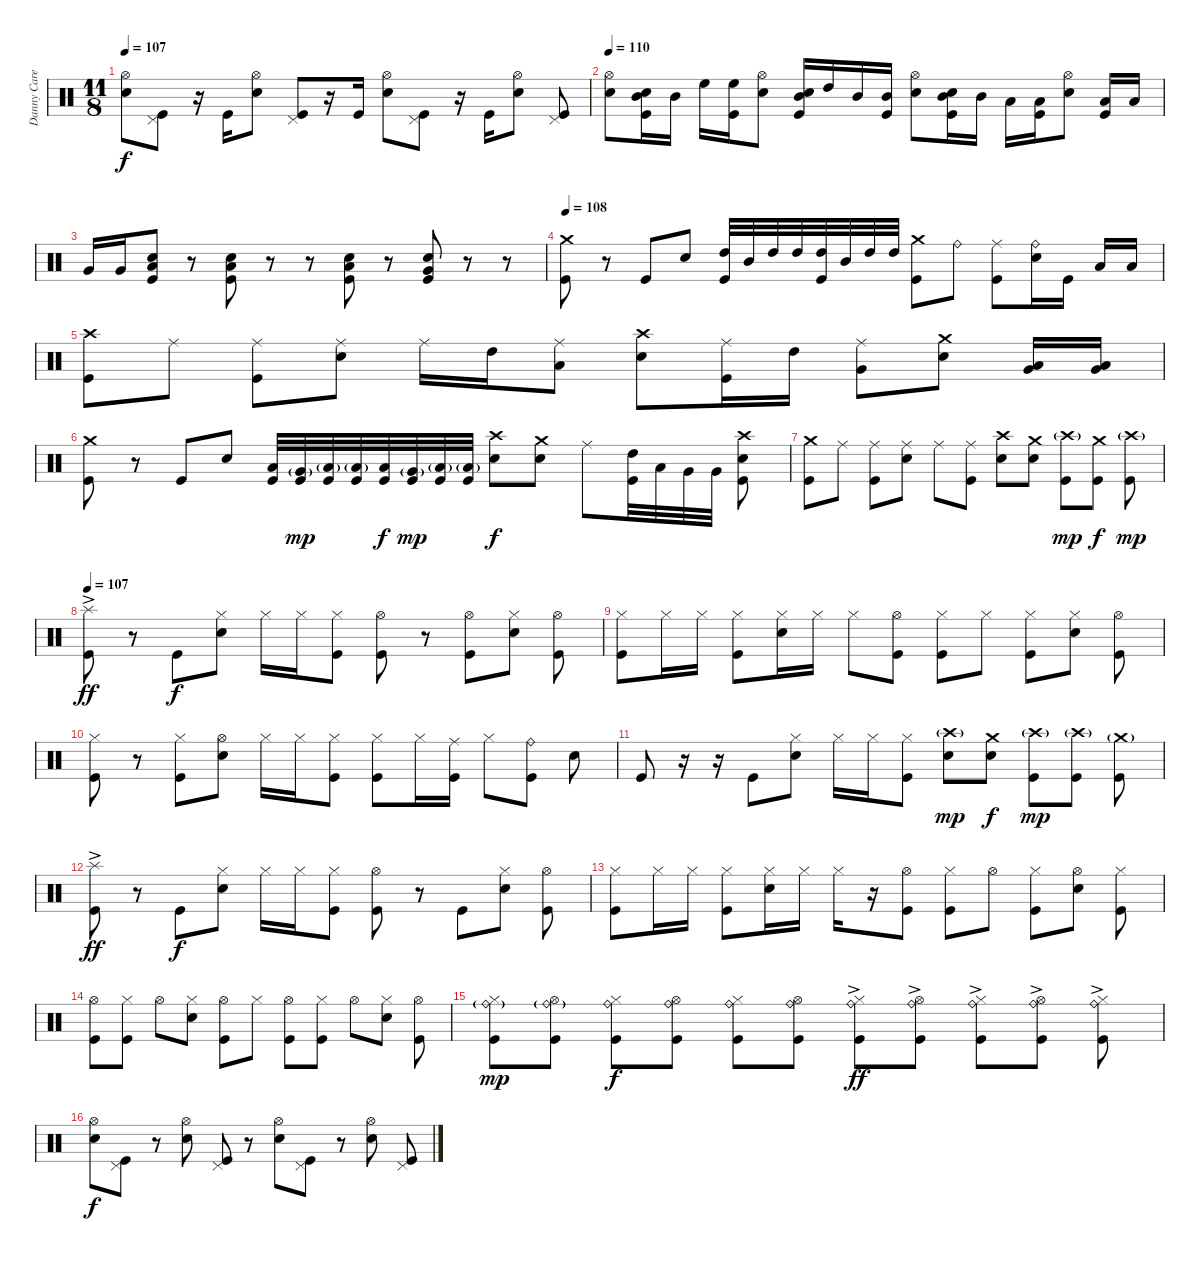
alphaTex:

\track ("Danny Carey (drum)" "Danny Care") {instrument percussion}
\staff {score}
\articulation defaults
\ts (11 8)
\tempo 107
\clef neutral
\ks c
("Hi-Hat (open)" "Snare (hit) 2").8{dy f} ("Pedal Hi-Hat (hit)" "Kick (hit)").8 r.16 "Kick (hit)".16 ("Hi-Hat (open)" "Snare (hit) 2").8 ("Pedal Hi-Hat (hit)" "Kick (hit)").8 r.16 "Kick (hit)".16 ("Hi-Hat (open)" "Snare (hit) 2").8 ("Pedal Hi-Hat (hit)" "Kick (hit)").8 r.16 "Kick (hit)".16 ("Hi-Hat (open)" "Snare (hit) 2").8 ("Pedal Hi-Hat (hit)" "Kick (hit)").8 |
\tempo 110
("Hi-Hat (open)" "Snare (hit) 2").8 ("Mid Tom (hit)" "Snare (hit) 2" "Kick (hit)").16 "Mid Tom (hit)".16 "High Floor Tom (hit)".16 ("High Floor Tom (hit)" "Kick (hit)").16 ("Hi-Hat (open)" "Snare (hit) 2").8 ("Mid Tom (hit)" "Snare (hit) 2" "Kick (hit)").16 "High Tom (hit)".16 "Mid Tom (hit)".16 ("Mid Tom (hit)" "Kick (hit)").16 ("Hi-Hat (open)" "Snare (hit) 2").8 ("Mid Tom (hit)" "Snare (hit) 2" "Kick (hit)").16 "Mid Tom (hit)".16 "Low Tom (hit)".16 ("Low Tom (hit)" "Kick (hit)").16 ("Hi-Hat (open)" "Snare (hit) 2").8 ("Low Tom (hit)" "Kick (hit)").16 "Low Tom (hit)".16 |
"Very Low Tom (hit)".16 "Very Low Tom (hit)".16 ("Snare (hit) 2" "Low Floor Tom (hit)" "Kick (hit)").8 r.8 ("Snare (hit) 2" "Low Floor Tom (hit)" "Kick (hit)").8 r.8 r.8 ("Snare (hit) 2" "Low Floor Tom (hit)" "Kick (hit)").8 r.8 ("Snare (hit) 2" "Very Low Tom (hit)" "Kick (hit)").8 r.8 r.8 |
\tempo 108
("Crash medium (hit)" "Kick (hit)").8 r.8 "Kick (hit)".8 "Snare (hit) 2".8 ("High Tom (hit)" "Kick (hit)").32 "Mid Tom (hit)".32 "High Tom (hit)".32 "High Tom (hit)".32 ("High Tom (hit)" "Kick (hit)").32 "Mid Tom (hit)".32 "High Tom (hit)".32 "High Tom (hit)".32 ("Crash medium (hit)" "Kick (hit)").8 "Ride (bell)".8 ("Ride (middle)" "Kick (hit)").8 ("Ride (bell)" "Snare (hit) 2").16 "Kick (hit)".16 "Low Tom (hit)".16 "Low Tom (hit)".16 |
("Crash high (hit)" "Kick (hit)").8 "Ride (middle)".8 ("Ride (middle)" "Kick (hit)").8 ("Ride (middle)" "Snare (hit) 2").8 "Ride (middle)".16 "High Tom (hit)".16 ("Ride (middle)" "Low Tom (hit)").8 ("Crash high (hit)" "Snare (hit) 2").8 ("Ride (middle)" "Kick (hit)").16 "High Tom (hit)".16 ("Ride (middle)" "Very Low Tom (hit)").8 ("Crash medium (hit)" "Snare (hit) 2").8 ("Very Low Tom (hit)" "Low Floor Tom (hit)").16 ("Very Low Tom (hit)" "Low Floor Tom (hit)").16 |
("Crash medium (hit)" "Kick (hit)").8 r.8 "Kick (hit)".8 "Snare (hit) 2".8 ("Low Tom (hit)" "Kick (hit)").32 ("Very Low Tom (hit)"{g} "Kick (hit)").32{dy mp} ("Low Floor Tom (hit)"{g} "Kick (hit)").32 ("Low Floor Tom (hit)"{g} "Kick (hit)").32 ("Low Tom (hit)" "Kick (hit)").32{dy f} ("Very Low Tom (hit)"{g} "Kick (hit)").32{dy mp} ("Low Floor Tom (hit)"{g} "Kick (hit)").32 ("Low Floor Tom (hit)"{g} "Kick (hit)").32 ("Crash high (hit)" "Snare (hit) 2").8{dy f} ("Crash medium (hit)" "Snare (hit) 2").8 "Ride (middle)".8 ("High Tom (hit)" "Kick (hit)").32 "Low Tom (hit)".32 "Very Low Tom (hit)".32 "Very Low Tom (hit)".32 ("Crash high (hit)" "Snare (hit) 2" "Kick (hit)").8 |
("Crash medium (hit)" "Kick (hit)").8 "Ride (middle)".8 ("Ride (middle)" "Kick (hit)").8 ("Ride (middle)" "Snare (hit) 2").8 "Ride (middle)".8 ("Ride (middle)" "Kick (hit)").8 ("Crash high (hit)" "Snare (hit) 2").8 ("Crash medium (hit)" "Snare (hit) 2").8 ("Crash high (hit)"{g} "Kick (hit)").8{dy mp} ("Crash medium (hit)" "Kick (hit)").8{dy f} ("Crash high (hit)"{g} "Kick (hit)").8{dy mp} |
\tempo 107
("Splash (hit)"{ac} "Kick (hit)").8{dy ff} r.8 "Kick (hit)".8{dy f} ("Hi-Hat (closed)" "Snare (hit) 2").8 "Hi-Hat (closed)".16 "Hi-Hat (closed)".16 ("Hi-Hat (closed)" "Kick (hit)").8 ("Hi-Hat (open)" "Kick (hit)").8 r.8 ("Hi-Hat (open)" "Kick (hit)").8 ("Hi-Hat (closed)" "Snare (hit) 2").8 ("Hi-Hat (open)" "Kick (hit)").8 |
("Hi-Hat (closed)" "Kick (hit)").8 "Hi-Hat (closed)".16 "Hi-Hat (closed)".16 ("Hi-Hat (closed)" "Kick (hit)").8 ("Hi-Hat (closed)" "Snare (hit) 2").16 "Hi-Hat (closed)".16 "Hi-Hat (closed)".8 ("Hi-Hat (open)" "Kick (hit)").8 ("Hi-Hat (closed)" "Kick (hit)").8 "Hi-Hat (closed)".8 ("Hi-Hat (closed)" "Kick (hit)").8 ("Hi-Hat (closed)" "Snare (hit) 2").8 ("Hi-Hat (open)" "Kick (hit)").8 |
("Hi-Hat (closed)" "Kick (hit)").8 r.8 ("Hi-Hat (closed)" "Kick (hit)").8 ("Hi-Hat (open)" "Snare (hit) 2").8 "Hi-Hat (closed)".16 "Hi-Hat (closed)".16 ("Hi-Hat (closed)" "Kick (hit)").8 ("Hi-Hat (closed)" "Kick (hit)").8 "Hi-Hat (closed)".16 ("Ride (middle)" "Kick (hit)").16 "Hi-Hat (closed)".8 ("Ride (bell)" "Kick (hit)").8 "Snare (hit) 2".8 |
"Kick (hit)".8 r.16 r.16 "Kick (hit)".8 ("Hi-Hat (closed)" "Snare (hit) 2").8 "Hi-Hat (closed)".16 "Hi-Hat (closed)".16 ("Hi-Hat (closed)" "Kick (hit)").8 ("Crash high (hit)"{g} "Snare (hit) 2").8{dy mp} ("Crash medium (hit)" "Snare (hit) 2").8{dy f} ("Crash high (hit)"{g} "Kick (hit)").8{dy mp} ("Crash high (hit)"{g} "Kick (hit)").8 ("Crash medium (hit)"{g} "Kick (hit)").8 |
("Splash (hit)"{ac} "Kick (hit)").8{dy ff} r.8 "Kick (hit)".8{dy f} ("Hi-Hat (closed)" "Snare (hit) 2").8 "Hi-Hat (closed)".16 "Hi-Hat (closed)".16 ("Hi-Hat (closed)" "Kick (hit)").8 ("Hi-Hat (open)" "Kick (hit)").8 r.8 "Kick (hit)".8 ("Hi-Hat (closed)" "Snare (hit) 2").8 ("Hi-Hat (open)" "Kick (hit)").8 |
("Hi-Hat (closed)" "Kick (hit)").8 "Hi-Hat (closed)".16 "Hi-Hat (closed)".16 ("Hi-Hat (closed)" "Kick (hit)").8 ("Hi-Hat (closed)" "Snare (hit) 2").16 "Hi-Hat (closed)".16 "Hi-Hat (closed)".16 r.16 ("Hi-Hat (open)" "Kick (hit)").8 ("Hi-Hat (closed)" "Kick (hit)").8 "Hi-Hat (open)".8 ("Hi-Hat (closed)" "Kick (hit)").8 ("Hi-Hat (open)" "Snare (hit) 2").8 ("Hi-Hat (closed)" "Kick (hit)").8 |
("Hi-Hat (open)" "Kick (hit)").8 ("Hi-Hat (closed)" "Kick (hit)").8 "Hi-Hat (open)".8 ("Hi-Hat (closed)" "Snare (hit) 2").8 ("Hi-Hat (open)" "Kick (hit)").8 "Hi-Hat (closed)".8 ("Hi-Hat (open)" "Kick (hit)").8 ("Hi-Hat (closed)" "Kick (hit)").8 "Hi-Hat (open)".8 ("Hi-Hat (closed)" "Snare (hit) 2").8 ("Hi-Hat (open)" "Kick (hit)").8 |
("Hi-Hat (closed)" "Ride (bell)"{g} "Kick (hit)").8{dy mp volume 10} ("Hi-Hat (open)" "Ride (bell)"{g} "Kick (hit)").8{volume 12} ("Hi-Hat (closed)" "Ride (bell)" "Kick (hit)").8{dy f} ("Hi-Hat (open)" "Ride (bell)" "Kick (hit)").8 ("Hi-Hat (closed)" "Ride (bell)" "Kick (hit)").8 ("Hi-Hat (open)" "Ride (bell)" "Kick (hit)").8 ("Hi-Hat (closed)" "Ride (bell)" "Kick (hit)"{ac}).8{dy ff volume 16} ("Hi-Hat (open)" "Ride (bell)" "Kick (hit)"{ac}).8 ("Hi-Hat (closed)" "Ride (bell)" "Kick (hit)"{ac}).8 ("Hi-Hat (open)" "Ride (bell)" "Kick (hit)"{ac}).8 ("Hi-Hat (closed)" "Ride (bell)" "Kick (hit)"{ac}).8 |
("Hi-Hat (open)" "Snare (hit) 2").8{dy f} ("Pedal Hi-Hat (hit)" "Kick (hit)").8 r.8 ("Hi-Hat (open)" "Snare (hit) 2").8 ("Pedal Hi-Hat (hit)" "Kick (hit)").8 r.8 ("Hi-Hat (open)" "Snare (hit) 2").8 ("Pedal Hi-Hat (hit)" "Kick (hit)").8 r.8 ("Hi-Hat (open)" "Snare (hit) 2").8 ("Pedal Hi-Hat (hit)" "Kick (hit)").8
